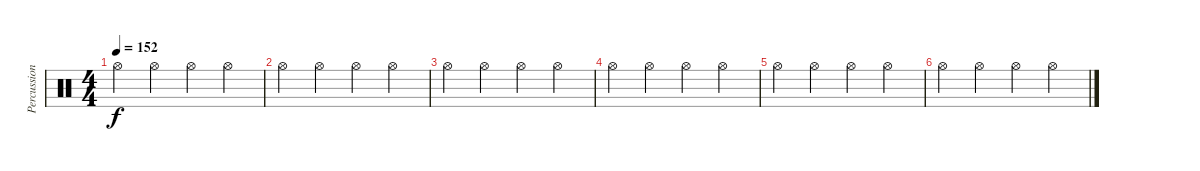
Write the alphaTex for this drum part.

\track ("Percussion" "Percussion") {instrument percussion}
\staff {score}
\articulation defaults
\ts (4 4)
\tempo 152
\clef neutral
\ks c "Hi-Hat (open)".4{dy f} "Hi-Hat (open)".4 "Hi-Hat (open)".4 "Hi-Hat (open)".4
|
"Hi-Hat (open)".4 "Hi-Hat (open)".4 "Hi-Hat (open)".4 "Hi-Hat (open)".4 |
"Hi-Hat (open)".4 "Hi-Hat (open)".4 "Hi-Hat (open)".4 "Hi-Hat (open)".4 |
"Hi-Hat (open)".4 "Hi-Hat (open)".4 "Hi-Hat (open)".4 "Hi-Hat (open)".4 |
"Hi-Hat (open)".4 "Hi-Hat (open)".4 "Hi-Hat (open)".4 "Hi-Hat (open)".4 |
"Hi-Hat (open)".4 "Hi-Hat (open)".4 "Hi-Hat (open)".4 "Hi-Hat (open)".4
